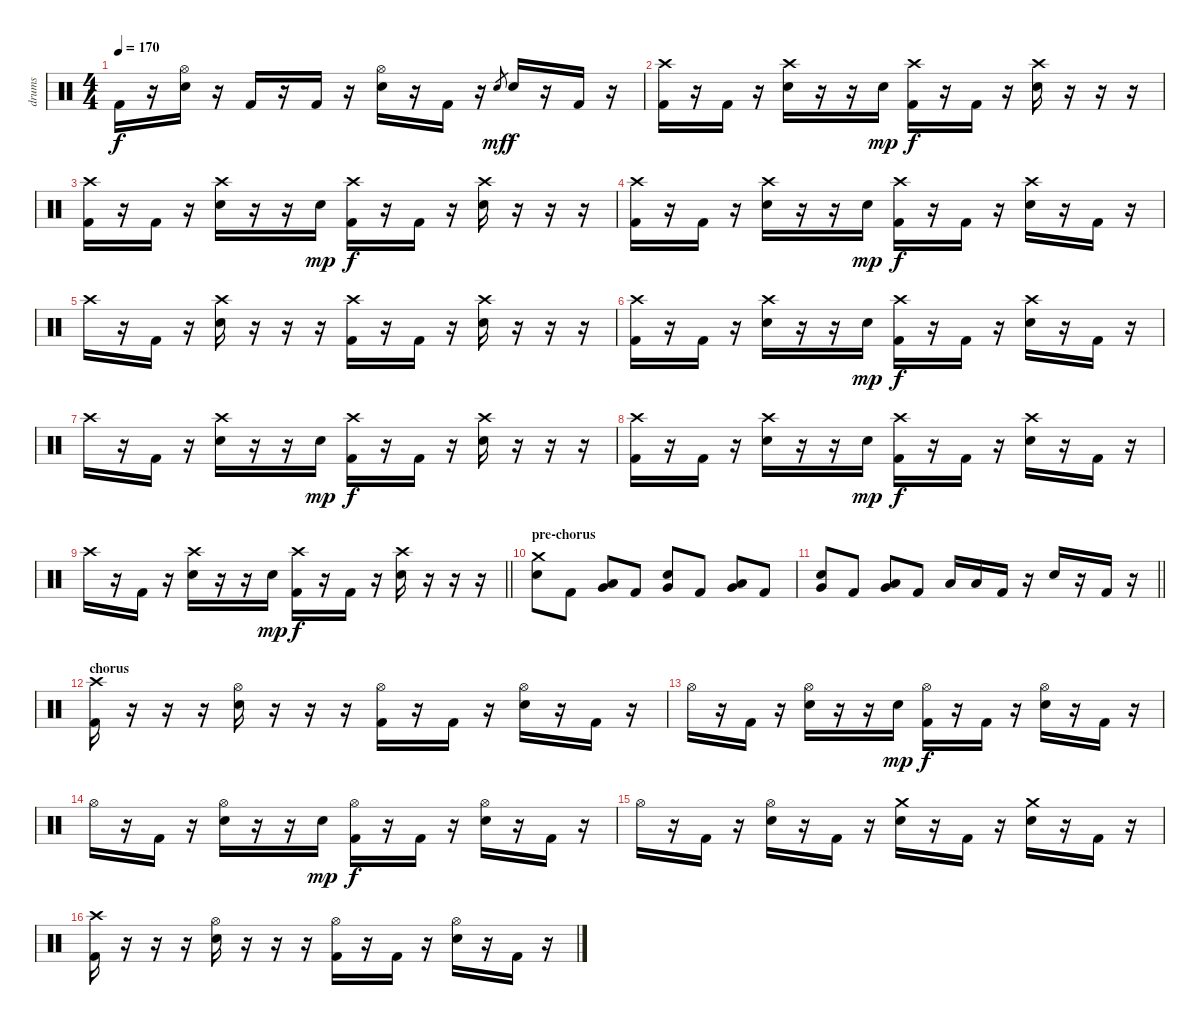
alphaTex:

\track ("drums" "drums") {instrument percussion}
\staff {score}
\articulation defaults
\ts (4 4)
\tempo 170
\clef neutral
\ks c "Kick (hit) 2".16{dy f}
r.16 ("Hi-Hat (open)" "Snare (hit) 2").16 r.16 "Kick (hit) 2".16 r.16 "Kick (hit) 2".16 r.16 ("Hi-Hat (open)" "Snare (hit) 2").16 r.16 "Kick (hit) 2".16 r.16 "Snare (hit) 2".8{gr dy mf} "Snare (hit) 2".16{dy f} r.16 "Kick (hit) 2".16 r.16 |
("Crash high (hit)" "Kick (hit) 2").16 r.16 "Kick (hit) 2".16 r.16 ("Crash high (hit)" "Snare (hit) 2").16 r.16 r.16 "Snare (hit) 2".16{dy mp} ("Crash high (hit)" "Kick (hit) 2").16{dy f} r.16 "Kick (hit) 2".16 r.16 ("Crash high (hit)" "Snare (hit) 2").16 r.16 r.16 r.16 |
("Crash high (hit)" "Kick (hit) 2").16 r.16 "Kick (hit) 2".16 r.16 ("Crash high (hit)" "Snare (hit) 2").16 r.16 r.16 "Snare (hit) 2".16{dy mp} ("Crash high (hit)" "Kick (hit) 2").16{dy f} r.16 "Kick (hit) 2".16 r.16 ("Crash high (hit)" "Snare (hit) 2").16 r.16 r.16 r.16 |
("Crash high (hit)" "Kick (hit) 2").16 r.16 "Kick (hit) 2".16 r.16 ("Crash high (hit)" "Snare (hit) 2").16 r.16 r.16 "Snare (hit) 2".16{dy mp} ("Crash high (hit)" "Kick (hit) 2").16{dy f} r.16 "Kick (hit) 2".16 r.16 ("Crash high (hit)" "Snare (hit) 2").16 r.16 "Kick (hit) 2".16 r.16 |
"Crash high (hit)".16 r.16 "Kick (hit) 2".16 r.16 ("Crash high (hit)" "Snare (hit) 2").16 r.16 r.16 r.16 ("Crash high (hit)" "Kick (hit) 2").16 r.16 "Kick (hit) 2".16 r.16 ("Crash high (hit)" "Snare (hit) 2").16 r.16 r.16 r.16 |
("Crash high (hit)" "Kick (hit) 2").16 r.16 "Kick (hit) 2".16 r.16 ("Crash high (hit)" "Snare (hit) 2").16 r.16 r.16 "Snare (hit) 2".16{dy mp} ("Crash high (hit)" "Kick (hit) 2").16{dy f} r.16 "Kick (hit) 2".16 r.16 ("Crash high (hit)" "Snare (hit) 2").16 r.16 "Kick (hit) 2".16 r.16 |
"Crash high (hit)".16 r.16 "Kick (hit) 2".16 r.16 ("Crash high (hit)" "Snare (hit) 2").16 r.16 r.16 "Snare (hit) 2".16{dy mp} ("Crash high (hit)" "Kick (hit) 2").16{dy f} r.16 "Kick (hit) 2".16 r.16 ("Crash high (hit)" "Snare (hit) 2").16 r.16 r.16 r.16 |
("Crash high (hit)" "Kick (hit) 2").16 r.16 "Kick (hit) 2".16 r.16 ("Crash high (hit)" "Snare (hit) 2").16 r.16 r.16 "Snare (hit) 2".16{dy mp} ("Crash high (hit)" "Kick (hit) 2").16{dy f} r.16 "Kick (hit) 2".16 r.16 ("Crash high (hit)" "Snare (hit) 2").16 r.16 "Kick (hit) 2".16 r.16 |
\barLineRight lightlight "Crash high (hit)".16
r.16 "Kick (hit) 2".16 r.16 ("Crash high (hit)" "Snare (hit) 2").16 r.16 r.16 "Snare (hit) 2".16{dy mp} ("Crash high (hit)" "Kick (hit) 2").16{dy f} r.16 "Kick (hit) 2".16 r.16 ("Crash high (hit)" "Snare (hit) 2").16 r.16 r.16 r.16 |
\section ("" "pre-chorus")
("Crash medium (hit)" "Snare (hit) 2").8 "Kick (hit) 2".8 ("Low Tom (hit)" "Very Low Tom (hit)").8 "Kick (hit) 2".8 ("Snare (hit) 2" "Very Low Tom (hit)").8 "Kick (hit) 2".8 ("Low Tom (hit)" "Very Low Tom (hit)").8 "Kick (hit) 2".8 |
\barLineRight lightlight
("Snare (hit) 2" "Very Low Tom (hit)").8 "Kick (hit) 2".8 ("Low Tom (hit)" "Very Low Tom (hit)").8 "Kick (hit) 2".8 "Low Tom (hit)".16 "Low Tom (hit)".16 "Kick (hit) 2".16 r.16 "Snare (hit) 2".16 r.16 "Kick (hit) 2".16 r.16 |
\section ("" "chorus")
("Crash high (hit)" "Kick (hit) 2").16 r.16 r.16 r.16 ("Hi-Hat (open)" "Snare (hit) 2").16 r.16 r.16 r.16 ("Hi-Hat (open)" "Kick (hit) 2").16 r.16 "Kick (hit) 2".16 r.16 ("Hi-Hat (open)" "Snare (hit) 2").16 r.16 "Kick (hit) 2".16 r.16 |
"Hi-Hat (open)".16 r.16 "Kick (hit) 2".16 r.16 ("Hi-Hat (open)" "Snare (hit) 2").16 r.16 r.16 "Snare (hit) 2".16{dy mp} ("Hi-Hat (open)" "Kick (hit) 2").16{dy f} r.16 "Kick (hit) 2".16 r.16 ("Hi-Hat (open)" "Snare (hit) 2").16 r.16 "Kick (hit) 2".16 r.16 |
"Hi-Hat (open)".16 r.16 "Kick (hit) 2".16 r.16 ("Hi-Hat (open)" "Snare (hit) 2").16 r.16 r.16 "Snare (hit) 2".16{dy mp} ("Hi-Hat (open)" "Kick (hit) 2").16{dy f} r.16 "Kick (hit) 2".16 r.16 ("Hi-Hat (open)" "Snare (hit) 2").16 r.16 "Kick (hit) 2".16 r.16 |
"Hi-Hat (open)".16 r.16 "Kick (hit) 2".16 r.16 ("Hi-Hat (open)" "Snare (hit) 2").16 r.16 "Kick (hit) 2".16 r.16 ("Crash medium (hit)" "Snare (hit) 2").16 r.16 "Kick (hit) 2".16 r.16 ("Crash medium (hit)" "Snare (hit) 2").16 r.16 "Kick (hit) 2".16 r.16 |
("Crash high (hit)" "Kick (hit) 2").16 r.16 r.16 r.16 ("Hi-Hat (open)" "Snare (hit) 2").16 r.16 r.16 r.16 ("Hi-Hat (open)" "Kick (hit) 2").16 r.16 "Kick (hit) 2".16 r.16 ("Hi-Hat (open)" "Snare (hit) 2").16 r.16 "Kick (hit) 2".16 r.16
